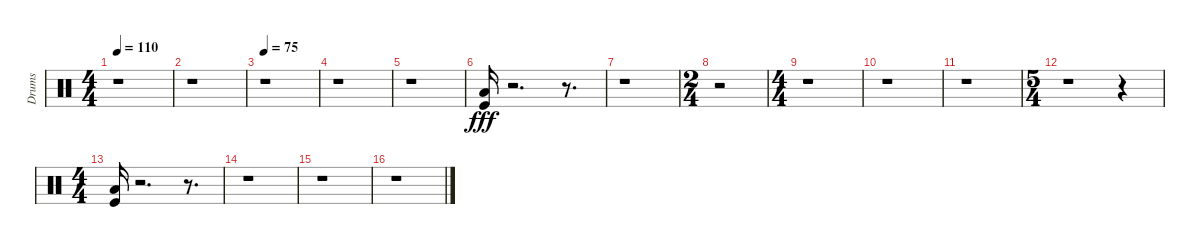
\track ("Drums" "Drums") {instrument percussion}
\staff {score}
\articulation defaults
\ts (4 4)
\tempo 110
\clef neutral
\ks c
r.1{dy fff} |
r.1 |
\tempo 75
r.1 |
r.1 |
r.1 |
("Kick (hit)" "Low Floor Tom (hit)").16 r.2{d} r.8{d} |
r.1 |
\ts (2 4)
r.2 |
\ts (4 4)
r.1 |
r.1 |
r.1 |
\ts (5 4)
r.1 r.4 |
\ts (4 4)
("Low Floor Tom (hit)" "Kick (hit)").16 r.2{d} r.8{d} |
r.1 |
r.1 |
r.1
